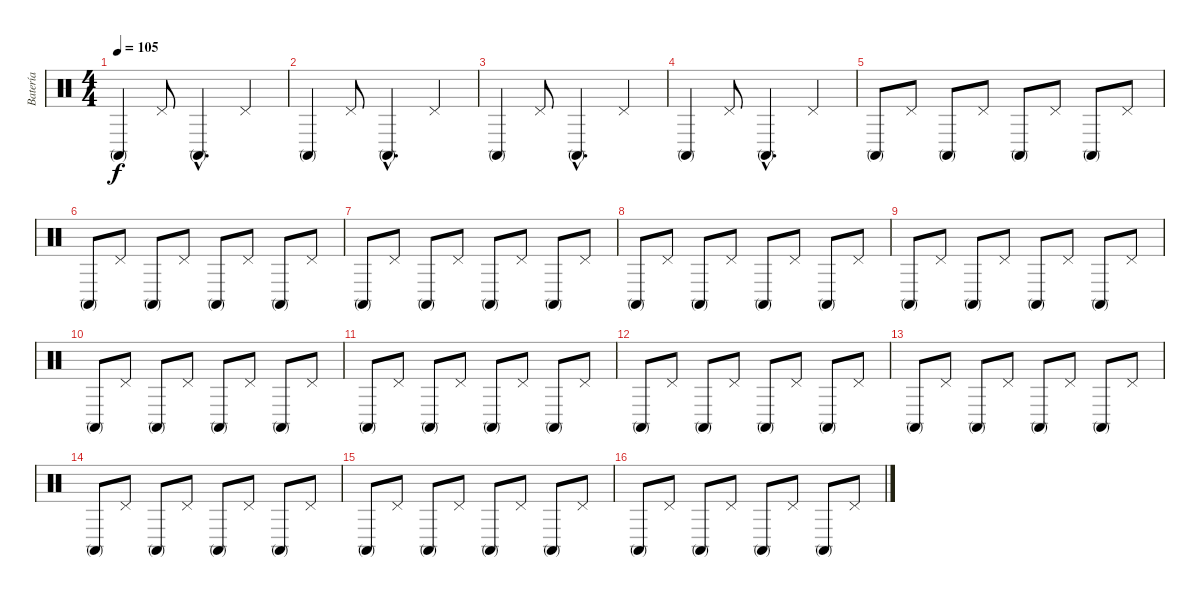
\track ("Batería" "Batería") {instrument percussion}
\staff {score}
\articulation defaults
\ts (4 4)
\tempo 105
\clef neutral
\ks c "Conga high (mute)".4{dy f} "Pedal Hi-Hat (hit)".8 "Conga high (mute)"{hac}.4{d} "Pedal Hi-Hat (hit)".4
|
"Conga high (mute)".4 "Pedal Hi-Hat (hit)".8 "Conga high (mute)"{hac}.4{d} "Pedal Hi-Hat (hit)".4 |
"Conga high (mute)".4 "Pedal Hi-Hat (hit)".8 "Conga high (mute)"{hac}.4{d} "Pedal Hi-Hat (hit)".4 |
"Conga high (mute)".4 "Pedal Hi-Hat (hit)".8 "Conga high (mute)"{hac}.4{d} "Pedal Hi-Hat (hit)".4 |
"Conga high (mute)".8 "Pedal Hi-Hat (hit)".8 "Conga high (mute)".8 "Pedal Hi-Hat (hit)".8 "Conga high (mute)".8 "Pedal Hi-Hat (hit)".8 "Conga high (mute)".8 "Pedal Hi-Hat (hit)".8 |
"Conga high (mute)".8 "Pedal Hi-Hat (hit)".8 "Conga high (mute)".8 "Pedal Hi-Hat (hit)".8 "Conga high (mute)".8 "Pedal Hi-Hat (hit)".8 "Conga high (mute)".8 "Pedal Hi-Hat (hit)".8 |
"Conga high (mute)".8 "Pedal Hi-Hat (hit)".8 "Conga high (mute)".8 "Pedal Hi-Hat (hit)".8 "Conga high (mute)".8 "Pedal Hi-Hat (hit)".8 "Conga high (mute)".8 "Pedal Hi-Hat (hit)".8 |
"Conga high (mute)".8 "Pedal Hi-Hat (hit)".8 "Conga high (mute)".8 "Pedal Hi-Hat (hit)".8 "Conga high (mute)".8 "Pedal Hi-Hat (hit)".8 "Conga high (mute)".8 "Pedal Hi-Hat (hit)".8 |
"Conga high (mute)".8 "Pedal Hi-Hat (hit)".8 "Conga high (mute)".8 "Pedal Hi-Hat (hit)".8 "Conga high (mute)".8 "Pedal Hi-Hat (hit)".8 "Conga high (mute)".8 "Pedal Hi-Hat (hit)".8 |
"Conga high (mute)".8 "Pedal Hi-Hat (hit)".8 "Conga high (mute)".8 "Pedal Hi-Hat (hit)".8 "Conga high (mute)".8 "Pedal Hi-Hat (hit)".8 "Conga high (mute)".8 "Pedal Hi-Hat (hit)".8 |
"Conga high (mute)".8 "Pedal Hi-Hat (hit)".8 "Conga high (mute)".8 "Pedal Hi-Hat (hit)".8 "Conga high (mute)".8 "Pedal Hi-Hat (hit)".8 "Conga high (mute)".8 "Pedal Hi-Hat (hit)".8 |
"Conga high (mute)".8 "Pedal Hi-Hat (hit)".8 "Conga high (mute)".8 "Pedal Hi-Hat (hit)".8 "Conga high (mute)".8 "Pedal Hi-Hat (hit)".8 "Conga high (mute)".8 "Pedal Hi-Hat (hit)".8 |
"Conga high (mute)".8 "Pedal Hi-Hat (hit)".8 "Conga high (mute)".8 "Pedal Hi-Hat (hit)".8 "Conga high (mute)".8 "Pedal Hi-Hat (hit)".8 "Conga high (mute)".8 "Pedal Hi-Hat (hit)".8 |
"Conga high (mute)".8 "Pedal Hi-Hat (hit)".8 "Conga high (mute)".8 "Pedal Hi-Hat (hit)".8 "Conga high (mute)".8 "Pedal Hi-Hat (hit)".8 "Conga high (mute)".8 "Pedal Hi-Hat (hit)".8 |
"Conga high (mute)".8 "Pedal Hi-Hat (hit)".8 "Conga high (mute)".8 "Pedal Hi-Hat (hit)".8 "Conga high (mute)".8 "Pedal Hi-Hat (hit)".8 "Conga high (mute)".8 "Pedal Hi-Hat (hit)".8 |
"Conga high (mute)".8 "Pedal Hi-Hat (hit)".8 "Conga high (mute)".8 "Pedal Hi-Hat (hit)".8 "Conga high (mute)".8 "Pedal Hi-Hat (hit)".8 "Conga high (mute)".8 "Pedal Hi-Hat (hit)".8
